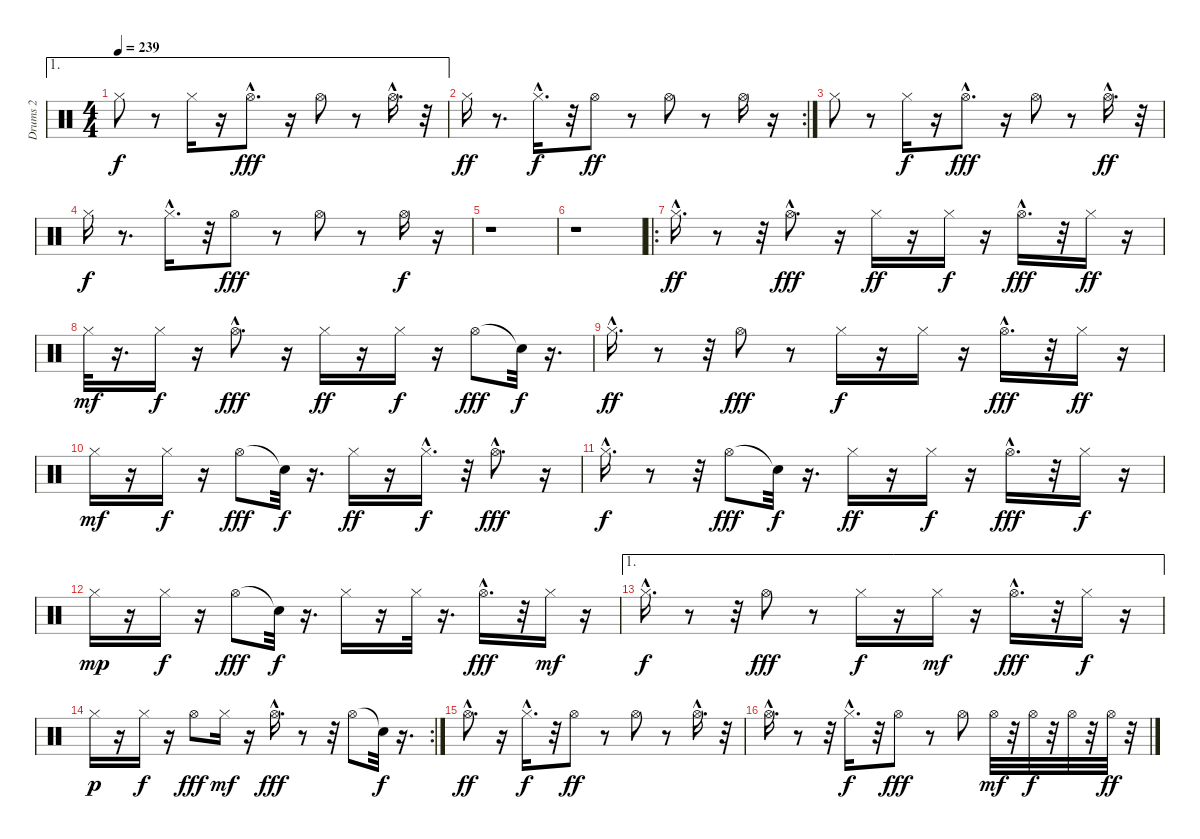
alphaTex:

\track ("Drums 2" "Drums 2") {instrument percussion}
\staff {score}
\articulation defaults
\ae 1
\ts (4 4)
\tempo 239
\clef neutral
\ks c "Hi-Hat (closed)".8{dy f}
r.8 "Hi-Hat (closed)".16 r.16 "Hi-Hat (open)"{hac}.8{d dy fff} r.16 "Hi-Hat (open)".8 r.8 "Hi-Hat (open)"{hac}.16{d} r.32 |
\rc 2 "Hi-Hat (closed)".16{dy ff}
r.8{d} "Hi-Hat (closed)"{hac}.16{d dy f} r.32 "Hi-Hat (open)".8{dy ff} r.8 "Hi-Hat (open)".8 r.8 "Hi-Hat (open)".16 r.16 |
"Hi-Hat (closed)".8 r.8 "Hi-Hat (closed)".16{dy f} r.16 "Hi-Hat (open)"{hac}.8{d dy fff} r.16 "Hi-Hat (open)".8 r.8 "Hi-Hat (open)"{hac}.16{d dy ff} r.32 |
"Hi-Hat (closed)".16{dy f} r.8{d} "Hi-Hat (closed)"{hac}.16{d} r.32 "Hi-Hat (open)".8{dy fff} r.8 "Hi-Hat (open)".8 r.8 "Hi-Hat (open)".16{dy f} r.16 |
r.1 |
r.1 |
\ro "Hi-Hat (closed)"{hac}.16{d dy ff}
r.8 r.32 "Hi-Hat (open)"{hac}.8{d dy fff} r.16 "Hi-Hat (closed)".16{dy ff} r.16 "Hi-Hat (closed)".16{dy f} r.16 "Hi-Hat (open)"{hac}.16{d dy fff} r.32 "Hi-Hat (closed)".16{dy ff} r.16 |
"Hi-Hat (closed)".32{dy mf} r.16{d} "Hi-Hat (closed)".16{dy f} r.16 "Hi-Hat (open)"{hac}.8{d dy fff} r.16 "Hi-Hat (closed)".16{dy ff} r.16 "Hi-Hat (closed)".16{dy f} r.16 "Hi-Hat (open)".8{dy fff} "Snare (hit)"{t}.32{dy f} r.16{d} |
"Hi-Hat (closed)"{hac}.16{d dy ff} r.8 r.32 "Hi-Hat (open)".8{dy fff} r.8 "Hi-Hat (closed)".16{dy f} r.16 "Hi-Hat (closed)".16 r.16 "Hi-Hat (open)"{hac}.16{d dy fff} r.32 "Hi-Hat (closed)".16{dy ff} r.16 |
"Hi-Hat (closed)".16{dy mf} r.16 "Hi-Hat (closed)".16{dy f} r.16 "Hi-Hat (open)".8{dy fff} "Snare (hit)"{t}.32{dy f} r.16{d} "Hi-Hat (closed)".16{dy ff} r.16 "Hi-Hat (closed)"{hac}.16{d dy f} r.32 "Hi-Hat (open)"{hac}.8{d dy fff} r.16 |
"Hi-Hat (closed)"{hac}.16{d dy f} r.8 r.32 "Hi-Hat (open)".8{dy fff} "Snare (hit)"{t}.32{dy f} r.16{d} "Hi-Hat (closed)".16{dy ff} r.16 "Hi-Hat (closed)".16{dy f} r.16 "Hi-Hat (open)"{hac}.16{d dy fff} r.32 "Hi-Hat (closed)".16{dy f} r.16 |
"Hi-Hat (closed)".16{dy mp} r.16 "Hi-Hat (closed)".16{dy f} r.16 "Hi-Hat (open)".8{dy fff} "Snare (hit)"{t}.32{dy f} r.16{d} "Hi-Hat (closed)".16 r.16 "Hi-Hat (closed)".32 r.16{d} "Hi-Hat (open)"{hac}.16{d dy fff} r.32 "Hi-Hat (closed)".16{dy mf} r.16 |
\ae 1 "Hi-Hat (closed)"{hac}.16{d dy f}
r.8 r.32 "Hi-Hat (open)".8{dy fff} r.8 "Hi-Hat (closed)".16{dy f} r.16 "Hi-Hat (closed)".16{dy mf} r.16 "Hi-Hat (open)"{hac}.16{d dy fff} r.32 "Hi-Hat (closed)".16{dy f} r.16 |
\rc 2 "Hi-Hat (closed)".16{dy p}
r.16 "Hi-Hat (closed)".16{dy f} r.16 "Hi-Hat (open)".8{dy fff} "Hi-Hat (closed)".16{dy mf} r.16 "Hi-Hat (open)"{hac}.16{d dy fff} r.8 r.32 "Hi-Hat (open)".8 "Snare (hit)"{t}.32{dy f} r.16{d} |
"Hi-Hat (open)"{hac}.8{d dy ff} r.16 "Hi-Hat (closed)"{hac}.16{d dy f} r.32 "Hi-Hat (open)".8{dy ff} r.8 "Hi-Hat (open)".8 r.8 "Hi-Hat (open)"{hac}.16{d} r.32 |
"Hi-Hat (open)"{hac}.16{d} r.8 r.32 "Hi-Hat (closed)"{hac}.16{d dy f} r.32 "Hi-Hat (open)".8{dy fff} r.8 "Hi-Hat (open)".8 "Hi-Hat (open)".32{dy mf} r.32 "Hi-Hat (open)".32{dy f} r.32 "Hi-Hat (open)".32 r.32 "Hi-Hat (open)".32{dy ff} r.32
